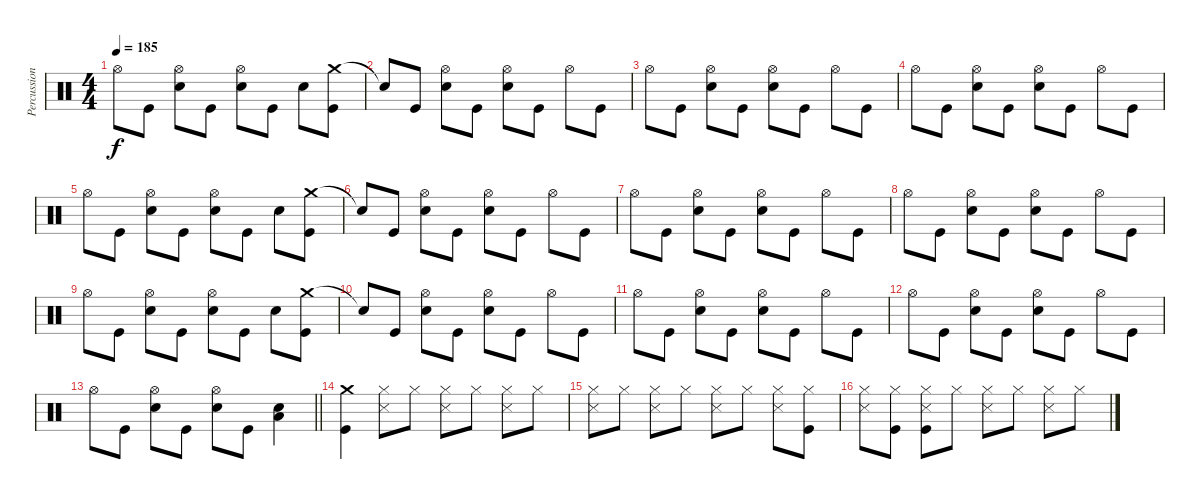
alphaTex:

\track ("Percussion" "Percussion") {instrument percussion}
\staff {score}
\articulation defaults
\ts (4 4)
\tempo 185
\clef neutral
\ks c "Hi-Hat (open)".8{dy f} "Kick (hit)".8
("Hi-Hat (open)" "Electric Snare (hit)").8 "Kick (hit)".8 ("Hi-Hat (open)" "Electric Snare (hit)").8 "Kick (hit)".8 "Electric Snare (hit)".8 ("Crash medium (hit)" "Kick (hit)").8 |
"Snare (hit)"{t}.8 "Kick (hit)".8 ("Hi-Hat (open)" "Electric Snare (hit)").8 "Kick (hit)".8 ("Hi-Hat (open)" "Electric Snare (hit)").8 "Kick (hit)".8 "Hi-Hat (open)".8 "Kick (hit)".8 |
"Hi-Hat (open)".8 "Kick (hit)".8 ("Hi-Hat (open)" "Electric Snare (hit)").8 "Kick (hit)".8 ("Hi-Hat (open)" "Electric Snare (hit)").8 "Kick (hit)".8 "Hi-Hat (open)".8 "Kick (hit)".8 |
"Hi-Hat (open)".8 "Kick (hit)".8 ("Hi-Hat (open)" "Electric Snare (hit)").8 "Kick (hit)".8 ("Hi-Hat (open)" "Electric Snare (hit)").8 "Kick (hit)".8 "Hi-Hat (open)".8 "Kick (hit)".8 |
"Hi-Hat (open)".8 "Kick (hit)".8 ("Hi-Hat (open)" "Electric Snare (hit)").8 "Kick (hit)".8 ("Hi-Hat (open)" "Electric Snare (hit)").8 "Kick (hit)".8 "Electric Snare (hit)".8 ("Crash medium (hit)" "Kick (hit)").8 |
"Snare (hit)"{t}.8 "Kick (hit)".8 ("Hi-Hat (open)" "Electric Snare (hit)").8 "Kick (hit)".8 ("Hi-Hat (open)" "Electric Snare (hit)").8 "Kick (hit)".8 "Hi-Hat (open)".8 "Kick (hit)".8 |
"Hi-Hat (open)".8 "Kick (hit)".8 ("Hi-Hat (open)" "Electric Snare (hit)").8 "Kick (hit)".8 ("Hi-Hat (open)" "Electric Snare (hit)").8 "Kick (hit)".8 "Hi-Hat (open)".8 "Kick (hit)".8 |
"Hi-Hat (open)".8 "Kick (hit)".8 ("Hi-Hat (open)" "Electric Snare (hit)").8 "Kick (hit)".8 ("Hi-Hat (open)" "Electric Snare (hit)").8 "Kick (hit)".8 "Hi-Hat (open)".8 "Kick (hit)".8 |
"Hi-Hat (open)".8 "Kick (hit)".8 ("Hi-Hat (open)" "Electric Snare (hit)").8 "Kick (hit)".8 ("Hi-Hat (open)" "Electric Snare (hit)").8 "Kick (hit)".8 "Electric Snare (hit)".8 ("Crash medium (hit)" "Kick (hit)").8 |
"Snare (hit)"{t}.8 "Kick (hit)".8 ("Hi-Hat (open)" "Electric Snare (hit)").8 "Kick (hit)".8 ("Hi-Hat (open)" "Electric Snare (hit)").8 "Kick (hit)".8 "Hi-Hat (open)".8 "Kick (hit)".8 |
"Hi-Hat (open)".8 "Kick (hit)".8 ("Hi-Hat (open)" "Electric Snare (hit)").8 "Kick (hit)".8 ("Hi-Hat (open)" "Electric Snare (hit)").8 "Kick (hit)".8 "Hi-Hat (open)".8 "Kick (hit)".8 |
"Hi-Hat (open)".8 "Kick (hit)".8 ("Hi-Hat (open)" "Electric Snare (hit)").8 "Kick (hit)".8 ("Hi-Hat (open)" "Electric Snare (hit)").8 "Kick (hit)".8 "Hi-Hat (open)".8 "Kick (hit)".8 |
\barLineRight lightlight "Hi-Hat (open)".8 "Kick (hit)".8
("Hi-Hat (open)" "Electric Snare (hit)").8 "Kick (hit)".8 ("Hi-Hat (open)" "Electric Snare (hit)").8 "Kick (hit)".8 ("Electric Snare (hit)" "Low Tom (hit)").4 |
("Crash medium (hit)" "Kick (hit)").4 ("Hi-Hat (closed)" "Snare (side stick) 3").8 "Hi-Hat (closed)".8 ("Hi-Hat (closed)" "Snare (side stick) 3").8 "Hi-Hat (closed)".8 ("Hi-Hat (closed)" "Snare (side stick) 3").8 "Hi-Hat (closed)".8 |
("Hi-Hat (closed)" "Snare (side stick) 3").8 "Hi-Hat (closed)".8 ("Hi-Hat (closed)" "Snare (side stick) 3").8 "Hi-Hat (closed)".8 ("Hi-Hat (closed)" "Snare (side stick) 3").8 "Hi-Hat (closed)".8 ("Hi-Hat (closed)" "Snare (side stick) 3").8 ("Hi-Hat (closed)" "Kick (hit)").8 |
("Hi-Hat (closed)" "Snare (side stick) 3").8 ("Hi-Hat (closed)" "Kick (hit)").8 ("Hi-Hat (closed)" "Snare (side stick) 3" "Kick (hit)").8 "Hi-Hat (closed)".8 ("Hi-Hat (closed)" "Snare (side stick) 3").8 "Hi-Hat (closed)".8 ("Hi-Hat (closed)" "Snare (side stick) 3").8 "Hi-Hat (closed)".8
